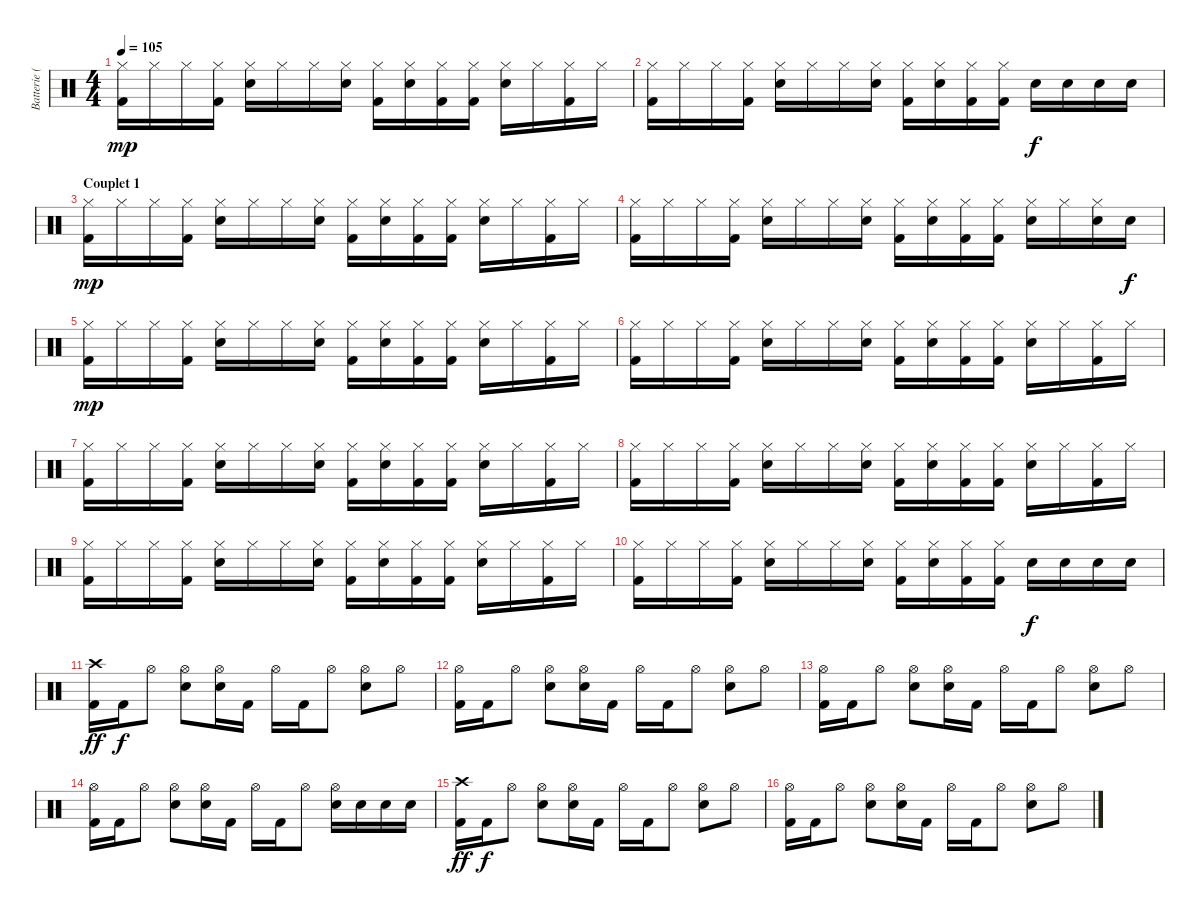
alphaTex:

\track ("Batterie (Preston Nash)" "Batterie (") {instrument percussion}
\staff {score}
\articulation defaults
\ts (4 4)
\tempo 105
\clef neutral
\ks c
("Hi-Hat (closed)" "Kick (hit) 2").16{dy mp} "Hi-Hat (closed)".16 "Hi-Hat (closed)".16 ("Hi-Hat (closed)" "Kick (hit) 2").16 ("Hi-Hat (closed)" "Electric Snare (hit)").16 "Hi-Hat (closed)".16 "Hi-Hat (closed)".16 ("Hi-Hat (closed)" "Electric Snare (hit)").16 ("Hi-Hat (closed)" "Kick (hit) 2").16 ("Hi-Hat (closed)" "Electric Snare (hit)").16 ("Hi-Hat (closed)" "Kick (hit) 2").16 ("Hi-Hat (closed)" "Kick (hit) 2").16 ("Hi-Hat (closed)" "Electric Snare (hit)").16 "Hi-Hat (closed)".16 ("Hi-Hat (closed)" "Kick (hit) 2").16 "Hi-Hat (closed)".16 |
("Hi-Hat (closed)" "Kick (hit) 2").16 "Hi-Hat (closed)".16 "Hi-Hat (closed)".16 ("Hi-Hat (closed)" "Kick (hit) 2").16 ("Hi-Hat (closed)" "Electric Snare (hit)").16 "Hi-Hat (closed)".16 "Hi-Hat (closed)".16 ("Hi-Hat (closed)" "Electric Snare (hit)").16 ("Hi-Hat (closed)" "Kick (hit) 2").16 ("Hi-Hat (closed)" "Electric Snare (hit)").16 ("Hi-Hat (closed)" "Kick (hit) 2").16 ("Hi-Hat (closed)" "Kick (hit) 2").16 "Electric Snare (hit)".16{dy f} "Electric Snare (hit)".16 "Electric Snare (hit)".16 "Electric Snare (hit)".16 |
\section ("" "Couplet 1")
("Hi-Hat (closed)" "Kick (hit) 2").16{dy mp} "Hi-Hat (closed)".16 "Hi-Hat (closed)".16 ("Hi-Hat (closed)" "Kick (hit) 2").16 ("Hi-Hat (closed)" "Electric Snare (hit)").16 "Hi-Hat (closed)".16 "Hi-Hat (closed)".16 ("Hi-Hat (closed)" "Electric Snare (hit)").16 ("Hi-Hat (closed)" "Kick (hit) 2").16 ("Hi-Hat (closed)" "Electric Snare (hit)").16 ("Hi-Hat (closed)" "Kick (hit) 2").16 ("Hi-Hat (closed)" "Kick (hit) 2").16 ("Hi-Hat (closed)" "Electric Snare (hit)").16 "Hi-Hat (closed)".16 ("Hi-Hat (closed)" "Kick (hit) 2").16 "Hi-Hat (closed)".16 |
("Hi-Hat (closed)" "Kick (hit) 2").16 "Hi-Hat (closed)".16 "Hi-Hat (closed)".16 ("Hi-Hat (closed)" "Kick (hit) 2").16 ("Hi-Hat (closed)" "Electric Snare (hit)").16 "Hi-Hat (closed)".16 "Hi-Hat (closed)".16 ("Hi-Hat (closed)" "Electric Snare (hit)").16 ("Hi-Hat (closed)" "Kick (hit) 2").16 ("Hi-Hat (closed)" "Electric Snare (hit)").16 ("Hi-Hat (closed)" "Kick (hit) 2").16 ("Hi-Hat (closed)" "Kick (hit) 2").16 ("Hi-Hat (closed)" "Electric Snare (hit)").16 "Hi-Hat (closed)".16 ("Hi-Hat (closed)" "Electric Snare (hit)").16 "Electric Snare (hit)".16{dy f} |
("Hi-Hat (closed)" "Kick (hit) 2").16{dy mp} "Hi-Hat (closed)".16 "Hi-Hat (closed)".16 ("Hi-Hat (closed)" "Kick (hit) 2").16 ("Hi-Hat (closed)" "Electric Snare (hit)").16 "Hi-Hat (closed)".16 "Hi-Hat (closed)".16 ("Hi-Hat (closed)" "Electric Snare (hit)").16 ("Hi-Hat (closed)" "Kick (hit) 2").16 ("Hi-Hat (closed)" "Electric Snare (hit)").16 ("Hi-Hat (closed)" "Kick (hit) 2").16 ("Hi-Hat (closed)" "Kick (hit) 2").16 ("Hi-Hat (closed)" "Electric Snare (hit)").16 "Hi-Hat (closed)".16 ("Hi-Hat (closed)" "Kick (hit) 2").16 "Hi-Hat (closed)".16 |
("Hi-Hat (closed)" "Kick (hit) 2").16 "Hi-Hat (closed)".16 "Hi-Hat (closed)".16 ("Hi-Hat (closed)" "Kick (hit) 2").16 ("Hi-Hat (closed)" "Electric Snare (hit)").16 "Hi-Hat (closed)".16 "Hi-Hat (closed)".16 ("Hi-Hat (closed)" "Electric Snare (hit)").16 ("Hi-Hat (closed)" "Kick (hit) 2").16 ("Hi-Hat (closed)" "Electric Snare (hit)").16 ("Hi-Hat (closed)" "Kick (hit) 2").16 ("Hi-Hat (closed)" "Kick (hit) 2").16 ("Hi-Hat (closed)" "Electric Snare (hit)").16 "Hi-Hat (closed)".16 ("Hi-Hat (closed)" "Kick (hit) 2").16 "Hi-Hat (closed)".16 |
("Hi-Hat (closed)" "Kick (hit) 2").16 "Hi-Hat (closed)".16 "Hi-Hat (closed)".16 ("Hi-Hat (closed)" "Kick (hit) 2").16 ("Hi-Hat (closed)" "Electric Snare (hit)").16 "Hi-Hat (closed)".16 "Hi-Hat (closed)".16 ("Hi-Hat (closed)" "Electric Snare (hit)").16 ("Hi-Hat (closed)" "Kick (hit) 2").16 ("Hi-Hat (closed)" "Electric Snare (hit)").16 ("Hi-Hat (closed)" "Kick (hit) 2").16 ("Hi-Hat (closed)" "Kick (hit) 2").16 ("Hi-Hat (closed)" "Electric Snare (hit)").16 "Hi-Hat (closed)".16 ("Hi-Hat (closed)" "Kick (hit) 2").16 "Hi-Hat (closed)".16 |
("Hi-Hat (closed)" "Kick (hit) 2").16 "Hi-Hat (closed)".16 "Hi-Hat (closed)".16 ("Hi-Hat (closed)" "Kick (hit) 2").16 ("Hi-Hat (closed)" "Electric Snare (hit)").16 "Hi-Hat (closed)".16 "Hi-Hat (closed)".16 ("Hi-Hat (closed)" "Electric Snare (hit)").16 ("Hi-Hat (closed)" "Kick (hit) 2").16 ("Hi-Hat (closed)" "Electric Snare (hit)").16 ("Hi-Hat (closed)" "Kick (hit) 2").16 ("Hi-Hat (closed)" "Kick (hit) 2").16 ("Hi-Hat (closed)" "Electric Snare (hit)").16 "Hi-Hat (closed)".16 ("Hi-Hat (closed)" "Kick (hit) 2").16 "Hi-Hat (closed)".16 |
("Hi-Hat (closed)" "Kick (hit) 2").16 "Hi-Hat (closed)".16 "Hi-Hat (closed)".16 ("Hi-Hat (closed)" "Kick (hit) 2").16 ("Hi-Hat (closed)" "Electric Snare (hit)").16 "Hi-Hat (closed)".16 "Hi-Hat (closed)".16 ("Hi-Hat (closed)" "Electric Snare (hit)").16 ("Hi-Hat (closed)" "Kick (hit) 2").16 ("Hi-Hat (closed)" "Electric Snare (hit)").16 ("Hi-Hat (closed)" "Kick (hit) 2").16 ("Hi-Hat (closed)" "Kick (hit) 2").16 ("Hi-Hat (closed)" "Electric Snare (hit)").16 "Hi-Hat (closed)".16 ("Hi-Hat (closed)" "Kick (hit) 2").16 "Hi-Hat (closed)".16 |
("Hi-Hat (closed)" "Kick (hit) 2").16 "Hi-Hat (closed)".16 "Hi-Hat (closed)".16 ("Hi-Hat (closed)" "Kick (hit) 2").16 ("Hi-Hat (closed)" "Electric Snare (hit)").16 "Hi-Hat (closed)".16 "Hi-Hat (closed)".16 ("Hi-Hat (closed)" "Electric Snare (hit)").16 ("Hi-Hat (closed)" "Kick (hit) 2").16 ("Hi-Hat (closed)" "Electric Snare (hit)").16 ("Hi-Hat (closed)" "Kick (hit) 2").16 ("Hi-Hat (closed)" "Kick (hit) 2").16 "Electric Snare (hit)".16{dy f} "Electric Snare (hit)".16 "Electric Snare (hit)".16 "Electric Snare (hit)".16 |
("Crash high (hit)" "Kick (hit) 2").16{dy ff} "Kick (hit) 2".16{dy f} "Hi-Hat (open)".8 ("Hi-Hat (open)" "Electric Snare (hit)").8 ("Hi-Hat (open)" "Electric Snare (hit)").16 "Kick (hit) 2".16 "Hi-Hat (open)".16 "Kick (hit) 2".16 "Hi-Hat (open)".8 ("Hi-Hat (open)" "Electric Snare (hit)").8 "Hi-Hat (open)".8 |
("Hi-Hat (open)" "Kick (hit) 2").16 "Kick (hit) 2".16 "Hi-Hat (open)".8 ("Hi-Hat (open)" "Electric Snare (hit)").8 ("Hi-Hat (open)" "Electric Snare (hit)").16 "Kick (hit) 2".16 "Hi-Hat (open)".16 "Kick (hit) 2".16 "Hi-Hat (open)".8 ("Hi-Hat (open)" "Electric Snare (hit)").8 "Hi-Hat (open)".8 |
("Hi-Hat (open)" "Kick (hit) 2").16 "Kick (hit) 2".16 "Hi-Hat (open)".8 ("Hi-Hat (open)" "Electric Snare (hit)").8 ("Hi-Hat (open)" "Electric Snare (hit)").16 "Kick (hit) 2".16 "Hi-Hat (open)".16 "Kick (hit) 2".16 "Hi-Hat (open)".8 ("Hi-Hat (open)" "Electric Snare (hit)").8 "Hi-Hat (open)".8 |
("Hi-Hat (open)" "Kick (hit) 2").16 "Kick (hit) 2".16 "Hi-Hat (open)".8 ("Hi-Hat (open)" "Electric Snare (hit)").8 ("Hi-Hat (open)" "Electric Snare (hit)").16 "Kick (hit) 2".16 "Hi-Hat (open)".16 "Kick (hit) 2".16 "Hi-Hat (open)".8 ("Hi-Hat (open)" "Electric Snare (hit)").16 "Electric Snare (hit)".16 "Electric Snare (hit)".16 "Electric Snare (hit)".16 |
("Crash high (hit)" "Kick (hit) 2").16{dy ff} "Kick (hit) 2".16{dy f} "Hi-Hat (open)".8 ("Hi-Hat (open)" "Electric Snare (hit)").8 ("Hi-Hat (open)" "Electric Snare (hit)").16 "Kick (hit) 2".16 "Hi-Hat (open)".16 "Kick (hit) 2".16 "Hi-Hat (open)".8 ("Hi-Hat (open)" "Electric Snare (hit)").8 "Hi-Hat (open)".8 |
("Hi-Hat (open)" "Kick (hit) 2").16 "Kick (hit) 2".16 "Hi-Hat (open)".8 ("Hi-Hat (open)" "Electric Snare (hit)").8 ("Hi-Hat (open)" "Electric Snare (hit)").16 "Kick (hit) 2".16 "Hi-Hat (open)".16 "Kick (hit) 2".16 "Hi-Hat (open)".8 ("Hi-Hat (open)" "Electric Snare (hit)").8 "Hi-Hat (open)".8
